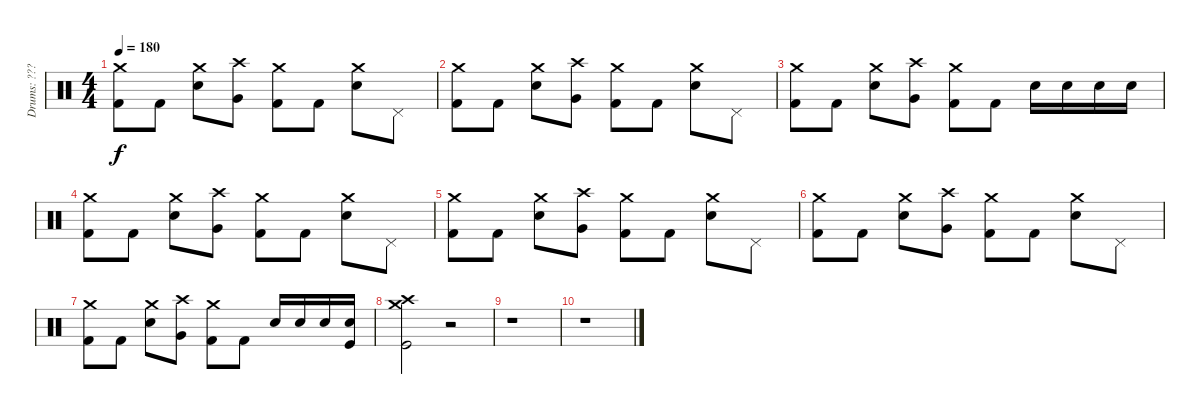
\track ("Drums: ???" "Drums: ???") {instrument percussion}
\staff {score}
\articulation defaults
\ts (4 4)
\tempo 180
\clef neutral
\ks c
("Crash medium (hit)" "Kick (hit) 2").8{dy f} "Kick (hit) 2".8 ("Crash medium (hit)" "Electric Snare (hit)").8 ("Crash high (hit)" "Very Low Tom (hit)").8 ("Crash medium (hit)" "Kick (hit) 2").8 "Kick (hit) 2".8 ("Crash medium (hit)" "Electric Snare (hit)").8 "Pedal Hi-Hat (hit)".8 |
("Crash medium (hit)" "Kick (hit) 2").8 "Kick (hit) 2".8 ("Crash medium (hit)" "Electric Snare (hit)").8 ("Crash high (hit)" "Very Low Tom (hit)").8 ("Crash medium (hit)" "Kick (hit) 2").8 "Kick (hit) 2".8 ("Crash medium (hit)" "Electric Snare (hit)").8 "Pedal Hi-Hat (hit)".8 |
("Crash medium (hit)" "Kick (hit) 2").8 "Kick (hit) 2".8 ("Crash medium (hit)" "Electric Snare (hit)").8 ("Crash high (hit)" "Very Low Tom (hit)").8 ("Crash medium (hit)" "Kick (hit) 2").8 "Kick (hit) 2".8 "Electric Snare (hit)".16 "Electric Snare (hit)".16 "Electric Snare (hit)".16 "Electric Snare (hit)".16 |
("Crash medium (hit)" "Kick (hit) 2").8 "Kick (hit) 2".8 ("Crash medium (hit)" "Electric Snare (hit)").8 ("Crash high (hit)" "Very Low Tom (hit)").8 ("Crash medium (hit)" "Kick (hit) 2").8 "Kick (hit) 2".8 ("Crash medium (hit)" "Electric Snare (hit)").8 "Pedal Hi-Hat (hit)".8 |
("Crash medium (hit)" "Kick (hit) 2").8 "Kick (hit) 2".8 ("Crash medium (hit)" "Electric Snare (hit)").8 ("Crash high (hit)" "Very Low Tom (hit)").8 ("Crash medium (hit)" "Kick (hit) 2").8 "Kick (hit) 2".8 ("Crash medium (hit)" "Electric Snare (hit)").8 "Pedal Hi-Hat (hit)".8 |
("Crash medium (hit)" "Kick (hit) 2").8 "Kick (hit) 2".8 ("Crash medium (hit)" "Electric Snare (hit)").8 ("Crash high (hit)" "Very Low Tom (hit)").8 ("Crash medium (hit)" "Kick (hit) 2").8 "Kick (hit) 2".8 ("Crash medium (hit)" "Electric Snare (hit)").8 "Pedal Hi-Hat (hit)".8 |
("Crash medium (hit)" "Kick (hit) 2").8 "Kick (hit) 2".8 ("Crash medium (hit)" "Electric Snare (hit)").8 ("Crash high (hit)" "Very Low Tom (hit)").8 ("Crash medium (hit)" "Kick (hit) 2").8 "Kick (hit) 2".8 "Electric Snare (hit)".16 "Electric Snare (hit)".16 "Electric Snare (hit)".16 ("Electric Snare (hit)" "Kick (hit)").16 |
("Crash medium (hit)" "Crash high (hit)" "Kick (hit)").2 r.2 |
r.1 |
r.1
